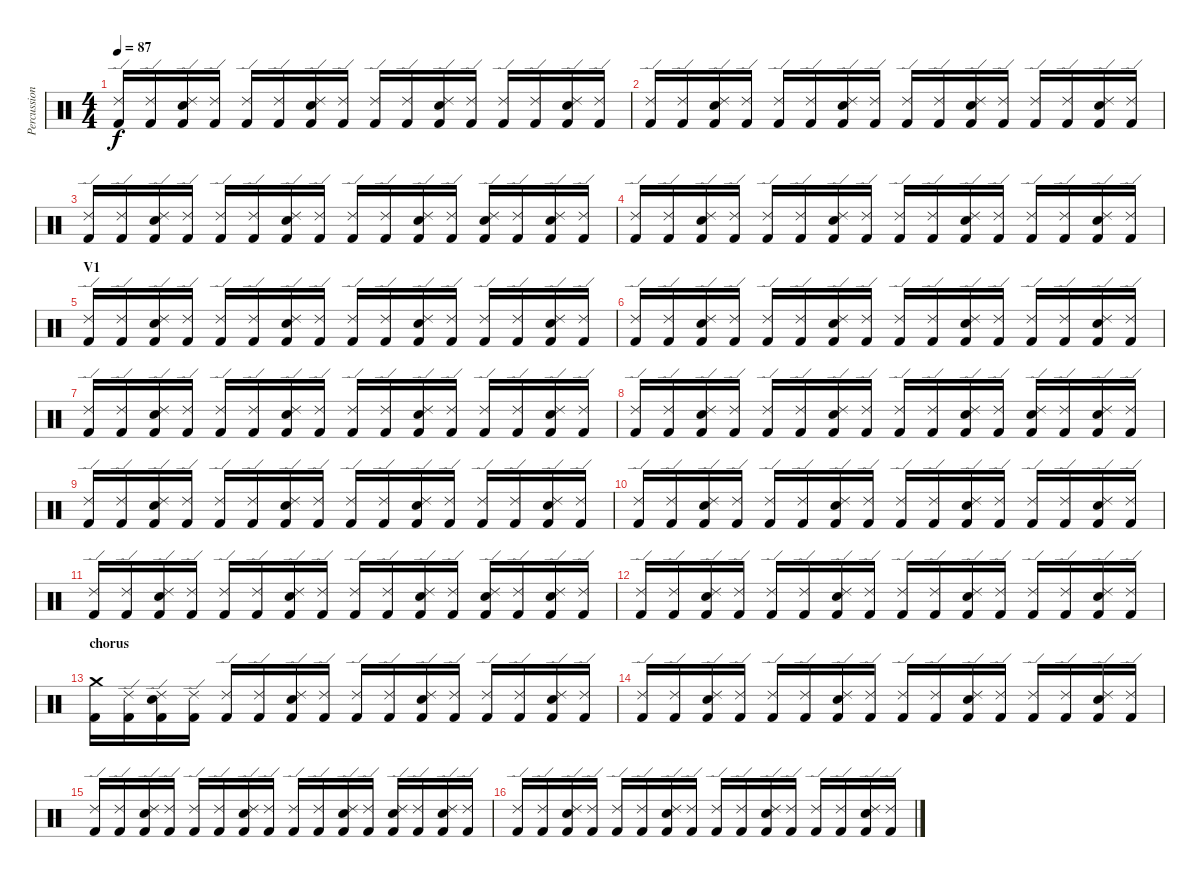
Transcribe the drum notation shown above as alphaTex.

\track ("Percussion" "Percussion") {instrument percussion}
\staff {score}
\articulation defaults
\ts (4 4)
\tempo 87
\clef neutral
\ks c
("Ride (edge) 2" "Kick (hit) 2").16{dy f} ("Ride (edge) 2" "Kick (hit) 2").16 ("Ride (edge) 2" "Snare (hit) 2" "Kick (hit) 2").16 ("Ride (edge) 2" "Kick (hit) 2").16 ("Ride (edge) 2" "Kick (hit) 2").16 ("Ride (edge) 2" "Kick (hit) 2").16 ("Ride (edge) 2" "Snare (hit) 2" "Kick (hit) 2").16 ("Ride (edge) 2" "Kick (hit) 2").16 ("Ride (edge) 2" "Kick (hit) 2").16 ("Ride (edge) 2" "Kick (hit) 2").16 ("Ride (edge) 2" "Snare (hit) 2" "Kick (hit) 2").16 ("Ride (edge) 2" "Kick (hit) 2").16 ("Ride (edge) 2" "Kick (hit) 2").16 ("Ride (edge) 2" "Kick (hit) 2").16 ("Ride (edge) 2" "Snare (hit) 2" "Kick (hit) 2").16 ("Ride (edge) 2" "Kick (hit) 2").16 |
("Ride (edge) 2" "Kick (hit) 2").16 ("Ride (edge) 2" "Kick (hit) 2").16 ("Ride (edge) 2" "Snare (hit) 2" "Kick (hit) 2").16 ("Ride (edge) 2" "Kick (hit) 2").16 ("Ride (edge) 2" "Kick (hit) 2").16 ("Ride (edge) 2" "Kick (hit) 2").16 ("Ride (edge) 2" "Snare (hit) 2" "Kick (hit) 2").16 ("Ride (edge) 2" "Kick (hit) 2").16 ("Ride (edge) 2" "Kick (hit) 2").16 ("Ride (edge) 2" "Kick (hit) 2").16 ("Ride (edge) 2" "Snare (hit) 2" "Kick (hit) 2").16 ("Ride (edge) 2" "Kick (hit) 2").16 ("Ride (edge) 2" "Kick (hit) 2").16 ("Ride (edge) 2" "Kick (hit) 2").16 ("Ride (edge) 2" "Snare (hit) 2" "Kick (hit) 2").16 ("Ride (edge) 2" "Kick (hit) 2").16 |
("Ride (edge) 2" "Kick (hit) 2").16 ("Ride (edge) 2" "Kick (hit) 2").16 ("Ride (edge) 2" "Snare (hit) 2" "Kick (hit) 2").16 ("Ride (edge) 2" "Kick (hit) 2").16 ("Ride (edge) 2" "Kick (hit) 2").16 ("Ride (edge) 2" "Kick (hit) 2").16 ("Ride (edge) 2" "Snare (hit) 2" "Kick (hit) 2").16 ("Ride (edge) 2" "Kick (hit) 2").16 ("Ride (edge) 2" "Kick (hit) 2").16 ("Ride (edge) 2" "Kick (hit) 2").16 ("Ride (edge) 2" "Snare (hit) 2" "Kick (hit) 2").16 ("Ride (edge) 2" "Kick (hit) 2").16 ("Ride (edge) 2" "Snare (hit) 2" "Kick (hit) 2").16 ("Ride (edge) 2" "Kick (hit) 2").16 ("Ride (edge) 2" "Snare (hit) 2" "Kick (hit) 2").16 ("Ride (edge) 2" "Kick (hit) 2").16 |
("Ride (edge) 2" "Kick (hit) 2").16 ("Ride (edge) 2" "Kick (hit) 2").16 ("Ride (edge) 2" "Snare (hit) 2" "Kick (hit) 2").16 ("Ride (edge) 2" "Kick (hit) 2").16 ("Ride (edge) 2" "Kick (hit) 2").16 ("Ride (edge) 2" "Kick (hit) 2").16 ("Ride (edge) 2" "Snare (hit) 2" "Kick (hit) 2").16 ("Ride (edge) 2" "Kick (hit) 2").16 ("Ride (edge) 2" "Kick (hit) 2").16 ("Ride (edge) 2" "Kick (hit) 2").16 ("Ride (edge) 2" "Snare (hit) 2" "Kick (hit) 2").16 ("Ride (edge) 2" "Kick (hit) 2").16 ("Ride (edge) 2" "Kick (hit) 2").16 ("Ride (edge) 2" "Kick (hit) 2").16 ("Ride (edge) 2" "Snare (hit) 2" "Kick (hit) 2").16 ("Ride (edge) 2" "Kick (hit) 2").16 |
\section ("" "V1")
("Ride (edge) 2" "Kick (hit) 2").16 ("Ride (edge) 2" "Kick (hit) 2").16 ("Ride (edge) 2" "Snare (hit) 2" "Kick (hit) 2").16 ("Ride (edge) 2" "Kick (hit) 2").16 ("Ride (edge) 2" "Kick (hit) 2").16 ("Ride (edge) 2" "Kick (hit) 2").16 ("Ride (edge) 2" "Snare (hit) 2" "Kick (hit) 2").16 ("Ride (edge) 2" "Kick (hit) 2").16 ("Ride (edge) 2" "Kick (hit) 2").16 ("Ride (edge) 2" "Kick (hit) 2").16 ("Ride (edge) 2" "Snare (hit) 2" "Kick (hit) 2").16 ("Ride (edge) 2" "Kick (hit) 2").16 ("Ride (edge) 2" "Kick (hit) 2").16 ("Ride (edge) 2" "Kick (hit) 2").16 ("Ride (edge) 2" "Snare (hit) 2" "Kick (hit) 2").16 ("Ride (edge) 2" "Kick (hit) 2").16 |
("Ride (edge) 2" "Kick (hit) 2").16 ("Ride (edge) 2" "Kick (hit) 2").16 ("Ride (edge) 2" "Snare (hit) 2" "Kick (hit) 2").16 ("Ride (edge) 2" "Kick (hit) 2").16 ("Ride (edge) 2" "Kick (hit) 2").16 ("Ride (edge) 2" "Kick (hit) 2").16 ("Ride (edge) 2" "Snare (hit) 2" "Kick (hit) 2").16 ("Ride (edge) 2" "Kick (hit) 2").16 ("Ride (edge) 2" "Kick (hit) 2").16 ("Ride (edge) 2" "Kick (hit) 2").16 ("Ride (edge) 2" "Snare (hit) 2" "Kick (hit) 2").16 ("Ride (edge) 2" "Kick (hit) 2").16 ("Ride (edge) 2" "Kick (hit) 2").16 ("Ride (edge) 2" "Kick (hit) 2").16 ("Ride (edge) 2" "Snare (hit) 2" "Kick (hit) 2").16 ("Ride (edge) 2" "Kick (hit) 2").16 |
("Ride (edge) 2" "Kick (hit) 2").16 ("Ride (edge) 2" "Kick (hit) 2").16 ("Ride (edge) 2" "Snare (hit) 2" "Kick (hit) 2").16 ("Ride (edge) 2" "Kick (hit) 2").16 ("Ride (edge) 2" "Kick (hit) 2").16 ("Ride (edge) 2" "Kick (hit) 2").16 ("Ride (edge) 2" "Snare (hit) 2" "Kick (hit) 2").16 ("Ride (edge) 2" "Kick (hit) 2").16 ("Ride (edge) 2" "Kick (hit) 2").16 ("Ride (edge) 2" "Kick (hit) 2").16 ("Ride (edge) 2" "Snare (hit) 2" "Kick (hit) 2").16 ("Ride (edge) 2" "Kick (hit) 2").16 ("Ride (edge) 2" "Kick (hit) 2").16 ("Ride (edge) 2" "Kick (hit) 2").16 ("Ride (edge) 2" "Snare (hit) 2" "Kick (hit) 2").16 ("Ride (edge) 2" "Kick (hit) 2").16 |
("Ride (edge) 2" "Kick (hit) 2").16 ("Ride (edge) 2" "Kick (hit) 2").16 ("Ride (edge) 2" "Snare (hit) 2" "Kick (hit) 2").16 ("Ride (edge) 2" "Kick (hit) 2").16 ("Ride (edge) 2" "Kick (hit) 2").16 ("Ride (edge) 2" "Kick (hit) 2").16 ("Ride (edge) 2" "Snare (hit) 2" "Kick (hit) 2").16 ("Ride (edge) 2" "Kick (hit) 2").16 ("Ride (edge) 2" "Kick (hit) 2").16 ("Ride (edge) 2" "Kick (hit) 2").16 ("Ride (edge) 2" "Snare (hit) 2" "Kick (hit) 2").16 ("Ride (edge) 2" "Kick (hit) 2").16 ("Ride (edge) 2" "Snare (hit) 2" "Kick (hit) 2").16 ("Ride (edge) 2" "Kick (hit) 2").16 ("Ride (edge) 2" "Snare (hit) 2" "Kick (hit) 2").16 ("Ride (edge) 2" "Kick (hit) 2").16 |
("Ride (edge) 2" "Kick (hit) 2").16 ("Ride (edge) 2" "Kick (hit) 2").16 ("Ride (edge) 2" "Snare (hit) 2" "Kick (hit) 2").16 ("Ride (edge) 2" "Kick (hit) 2").16 ("Ride (edge) 2" "Kick (hit) 2").16 ("Ride (edge) 2" "Kick (hit) 2").16 ("Ride (edge) 2" "Snare (hit) 2" "Kick (hit) 2").16 ("Ride (edge) 2" "Kick (hit) 2").16 ("Ride (edge) 2" "Kick (hit) 2").16 ("Ride (edge) 2" "Kick (hit) 2").16 ("Ride (edge) 2" "Snare (hit) 2" "Kick (hit) 2").16 ("Ride (edge) 2" "Kick (hit) 2").16 ("Ride (edge) 2" "Kick (hit) 2").16 ("Ride (edge) 2" "Kick (hit) 2").16 ("Ride (edge) 2" "Snare (hit) 2" "Kick (hit) 2").16 ("Ride (edge) 2" "Kick (hit) 2").16 |
("Ride (edge) 2" "Kick (hit) 2").16 ("Ride (edge) 2" "Kick (hit) 2").16 ("Ride (edge) 2" "Snare (hit) 2" "Kick (hit) 2").16 ("Ride (edge) 2" "Kick (hit) 2").16 ("Ride (edge) 2" "Kick (hit) 2").16 ("Ride (edge) 2" "Kick (hit) 2").16 ("Ride (edge) 2" "Snare (hit) 2" "Kick (hit) 2").16 ("Ride (edge) 2" "Kick (hit) 2").16 ("Ride (edge) 2" "Kick (hit) 2").16 ("Ride (edge) 2" "Kick (hit) 2").16 ("Ride (edge) 2" "Snare (hit) 2" "Kick (hit) 2").16 ("Ride (edge) 2" "Kick (hit) 2").16 ("Ride (edge) 2" "Kick (hit) 2").16 ("Ride (edge) 2" "Kick (hit) 2").16 ("Ride (edge) 2" "Snare (hit) 2" "Kick (hit) 2").16 ("Ride (edge) 2" "Kick (hit) 2").16 |
("Ride (edge) 2" "Kick (hit) 2").16 ("Ride (edge) 2" "Kick (hit) 2").16 ("Ride (edge) 2" "Snare (hit) 2" "Kick (hit) 2").16 ("Ride (edge) 2" "Kick (hit) 2").16 ("Ride (edge) 2" "Kick (hit) 2").16 ("Ride (edge) 2" "Kick (hit) 2").16 ("Ride (edge) 2" "Snare (hit) 2" "Kick (hit) 2").16 ("Ride (edge) 2" "Kick (hit) 2").16 ("Ride (edge) 2" "Kick (hit) 2").16 ("Ride (edge) 2" "Kick (hit) 2").16 ("Ride (edge) 2" "Snare (hit) 2" "Kick (hit) 2").16 ("Ride (edge) 2" "Kick (hit) 2").16 ("Ride (edge) 2" "Snare (hit) 2" "Kick (hit) 2").16 ("Ride (edge) 2" "Kick (hit) 2").16 ("Ride (edge) 2" "Snare (hit) 2" "Kick (hit) 2").16 ("Ride (edge) 2" "Kick (hit) 2").16 |
("Ride (edge) 2" "Kick (hit) 2").16 ("Ride (edge) 2" "Kick (hit) 2").16 ("Ride (edge) 2" "Snare (hit) 2" "Kick (hit) 2").16 ("Ride (edge) 2" "Kick (hit) 2").16 ("Ride (edge) 2" "Kick (hit) 2").16 ("Ride (edge) 2" "Kick (hit) 2").16 ("Ride (edge) 2" "Snare (hit) 2" "Kick (hit) 2").16 ("Ride (edge) 2" "Kick (hit) 2").16 ("Ride (edge) 2" "Kick (hit) 2").16 ("Ride (edge) 2" "Kick (hit) 2").16 ("Ride (edge) 2" "Snare (hit) 2" "Kick (hit) 2").16 ("Ride (edge) 2" "Kick (hit) 2").16 ("Ride (edge) 2" "Kick (hit) 2").16 ("Ride (edge) 2" "Kick (hit) 2").16 ("Ride (edge) 2" "Snare (hit) 2" "Kick (hit) 2").16 ("Ride (edge) 2" "Kick (hit) 2").16 |
\section ("" "chorus")
("Crash medium (hit)" "Kick (hit) 2").16 ("Ride (edge) 2" "Kick (hit) 2").16 ("Ride (edge) 2" "Snare (hit) 2" "Kick (hit) 2").16 ("Ride (edge) 2" "Kick (hit) 2").16 ("Ride (edge) 2" "Kick (hit) 2").16 ("Ride (edge) 2" "Kick (hit) 2").16 ("Ride (edge) 2" "Snare (hit) 2" "Kick (hit) 2").16 ("Ride (edge) 2" "Kick (hit) 2").16 ("Ride (edge) 2" "Kick (hit) 2").16 ("Ride (edge) 2" "Kick (hit) 2").16 ("Ride (edge) 2" "Snare (hit) 2" "Kick (hit) 2").16 ("Ride (edge) 2" "Kick (hit) 2").16 ("Ride (edge) 2" "Kick (hit) 2").16 ("Ride (edge) 2" "Kick (hit) 2").16 ("Ride (edge) 2" "Snare (hit) 2" "Kick (hit) 2").16 ("Ride (edge) 2" "Kick (hit) 2").16 |
("Ride (edge) 2" "Kick (hit) 2").16 ("Ride (edge) 2" "Kick (hit) 2").16 ("Ride (edge) 2" "Snare (hit) 2" "Kick (hit) 2").16 ("Ride (edge) 2" "Kick (hit) 2").16 ("Ride (edge) 2" "Kick (hit) 2").16 ("Ride (edge) 2" "Kick (hit) 2").16 ("Ride (edge) 2" "Snare (hit) 2" "Kick (hit) 2").16 ("Ride (edge) 2" "Kick (hit) 2").16 ("Ride (edge) 2" "Kick (hit) 2").16 ("Ride (edge) 2" "Kick (hit) 2").16 ("Ride (edge) 2" "Snare (hit) 2" "Kick (hit) 2").16 ("Ride (edge) 2" "Kick (hit) 2").16 ("Ride (edge) 2" "Kick (hit) 2").16 ("Ride (edge) 2" "Kick (hit) 2").16 ("Ride (edge) 2" "Snare (hit) 2" "Kick (hit) 2").16 ("Ride (edge) 2" "Kick (hit) 2").16 |
("Ride (edge) 2" "Kick (hit) 2").16 ("Ride (edge) 2" "Kick (hit) 2").16 ("Ride (edge) 2" "Snare (hit) 2" "Kick (hit) 2").16 ("Ride (edge) 2" "Kick (hit) 2").16 ("Ride (edge) 2" "Kick (hit) 2").16 ("Ride (edge) 2" "Kick (hit) 2").16 ("Ride (edge) 2" "Snare (hit) 2" "Kick (hit) 2").16 ("Ride (edge) 2" "Kick (hit) 2").16 ("Ride (edge) 2" "Kick (hit) 2").16 ("Ride (edge) 2" "Kick (hit) 2").16 ("Ride (edge) 2" "Snare (hit) 2" "Kick (hit) 2").16 ("Ride (edge) 2" "Kick (hit) 2").16 ("Ride (edge) 2" "Snare (hit) 2" "Kick (hit) 2").16 ("Ride (edge) 2" "Kick (hit) 2").16 ("Ride (edge) 2" "Snare (hit) 2" "Kick (hit) 2").16 ("Ride (edge) 2" "Kick (hit) 2").16 |
("Ride (edge) 2" "Kick (hit) 2").16 ("Ride (edge) 2" "Kick (hit) 2").16 ("Ride (edge) 2" "Snare (hit) 2" "Kick (hit) 2").16 ("Ride (edge) 2" "Kick (hit) 2").16 ("Ride (edge) 2" "Kick (hit) 2").16 ("Ride (edge) 2" "Kick (hit) 2").16 ("Ride (edge) 2" "Snare (hit) 2" "Kick (hit) 2").16 ("Ride (edge) 2" "Kick (hit) 2").16 ("Ride (edge) 2" "Kick (hit) 2").16 ("Ride (edge) 2" "Kick (hit) 2").16 ("Ride (edge) 2" "Snare (hit) 2" "Kick (hit) 2").16 ("Ride (edge) 2" "Kick (hit) 2").16 ("Ride (edge) 2" "Kick (hit) 2").16 ("Ride (edge) 2" "Kick (hit) 2").16 ("Ride (edge) 2" "Snare (hit) 2" "Kick (hit) 2").16 ("Ride (edge) 2" "Kick (hit) 2").16
